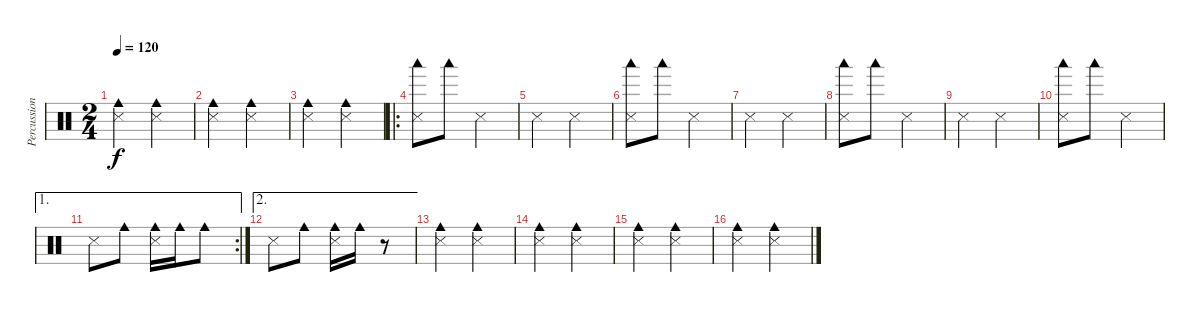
\track ("Percussion" "Percussion") {instrument percussion}
\staff {score}
\articulation defaults
\ts (2 4)
\tempo 120
\clef neutral
\ks aminor
("Snare (side stick) 3" "Cowbell medium (hit)").4{dy f} ("Snare (side stick) 3" "Cowbell medium (hit)").4 |
("Snare (side stick) 3" "Cowbell medium (hit)").4 ("Snare (side stick) 3" "Cowbell medium (hit)").4 |
("Snare (side stick) 3" "Cowbell medium (hit)").4 ("Snare (side stick) 3" "Cowbell medium (hit)").4 |
\ro
("Woodblock low (hit)" "Snare (side stick) 3").8 "Woodblock low (hit)".8 "Snare (side stick) 3".4 |
"Snare (side stick) 3".4 "Snare (side stick) 3".4 |
("Woodblock low (hit)" "Snare (side stick) 3").8 "Woodblock low (hit)".8 "Snare (side stick) 3".4 |
"Snare (side stick) 3".4 "Snare (side stick) 3".4 |
("Woodblock low (hit)" "Snare (side stick) 3").8 "Woodblock low (hit)".8 "Snare (side stick) 3".4 |
"Snare (side stick) 3".4 "Snare (side stick) 3".4 |
("Snare (side stick) 3" "Woodblock low (hit)").8 "Woodblock low (hit)".8 "Snare (side stick) 3".4 |
\ae 1
\rc 2 "Snare (side stick) 3".8 "Cowbell medium (hit)".8
("Cowbell medium (hit)" "Snare (side stick) 3").16 "Cowbell medium (hit)".16 "Cowbell medium (hit)".8 |
\ae 2 "Snare (side stick) 3".8 "Cowbell medium (hit)".8
("Cowbell medium (hit)" "Snare (side stick) 3").16 "Cowbell medium (hit)".16 r.8 |
("Snare (side stick) 3" "Cowbell medium (hit)").4 ("Snare (side stick) 3" "Cowbell medium (hit)").4 |
("Snare (side stick) 3" "Cowbell medium (hit)").4 ("Snare (side stick) 3" "Cowbell medium (hit)").4 |
("Snare (side stick) 3" "Cowbell medium (hit)").4 ("Snare (side stick) 3" "Cowbell medium (hit)").4 |
("Snare (side stick) 3" "Cowbell medium (hit)").4 ("Snare (side stick) 3" "Cowbell medium (hit)").4
